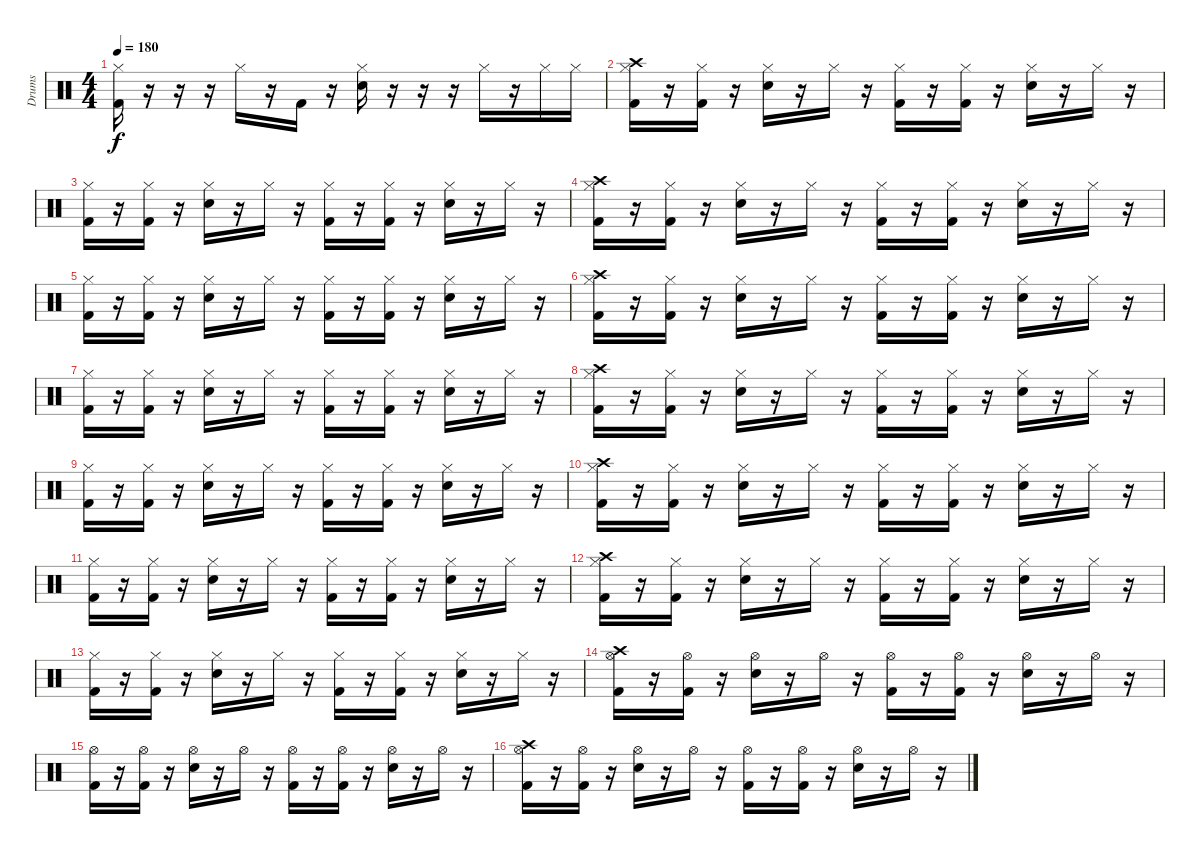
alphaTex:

\track ("Drums" "Drums") {instrument percussion}
\staff {score}
\articulation defaults
\ts (4 4)
\tempo 180
\clef neutral
\ks c
("Hi-Hat (closed)" "Kick (hit) 2").16{dy f} r.16 r.16 r.16 "Hi-Hat (closed)".16 r.16 "Kick (hit) 2".16 r.16 ("Hi-Hat (closed)" "Snare (hit) 2").16 r.16 r.16 r.16 "Hi-Hat (closed)".16 r.16 "Hi-Hat (closed)".16 "Hi-Hat (closed)".16 |
("Hi-Hat (closed)" "Kick (hit) 2" "Crash high (hit)").16 r.16 ("Hi-Hat (closed)" "Kick (hit) 2").16 r.16 ("Hi-Hat (closed)" "Snare (hit) 2").16 r.16 "Hi-Hat (closed)".16 r.16 ("Hi-Hat (closed)" "Kick (hit) 2").16 r.16 ("Hi-Hat (closed)" "Kick (hit) 2").16 r.16 ("Hi-Hat (closed)" "Snare (hit) 2").16 r.16 "Hi-Hat (closed)".16 r.16 |
("Hi-Hat (closed)" "Kick (hit) 2").16 r.16 ("Hi-Hat (closed)" "Kick (hit) 2").16 r.16 ("Hi-Hat (closed)" "Snare (hit) 2").16 r.16 "Hi-Hat (closed)".16 r.16 ("Hi-Hat (closed)" "Kick (hit) 2").16 r.16 ("Hi-Hat (closed)" "Kick (hit) 2").16 r.16 ("Hi-Hat (closed)" "Snare (hit) 2").16 r.16 "Hi-Hat (closed)".16 r.16 |
("Hi-Hat (closed)" "Kick (hit) 2" "Crash high (hit)").16 r.16 ("Hi-Hat (closed)" "Kick (hit) 2").16 r.16 ("Hi-Hat (closed)" "Snare (hit) 2").16 r.16 "Hi-Hat (closed)".16 r.16 ("Hi-Hat (closed)" "Kick (hit) 2").16 r.16 ("Hi-Hat (closed)" "Kick (hit) 2").16 r.16 ("Hi-Hat (closed)" "Snare (hit) 2").16 r.16 "Hi-Hat (closed)".16 r.16 |
("Hi-Hat (closed)" "Kick (hit) 2").16 r.16 ("Hi-Hat (closed)" "Kick (hit) 2").16 r.16 ("Hi-Hat (closed)" "Snare (hit) 2").16 r.16 "Hi-Hat (closed)".16 r.16 ("Hi-Hat (closed)" "Kick (hit) 2").16 r.16 ("Hi-Hat (closed)" "Kick (hit) 2").16 r.16 ("Hi-Hat (closed)" "Snare (hit) 2").16 r.16 "Hi-Hat (closed)".16 r.16 |
("Hi-Hat (closed)" "Kick (hit) 2" "Crash high (hit)").16 r.16 ("Hi-Hat (closed)" "Kick (hit) 2").16 r.16 ("Hi-Hat (closed)" "Snare (hit) 2").16 r.16 "Hi-Hat (closed)".16 r.16 ("Hi-Hat (closed)" "Kick (hit) 2").16 r.16 ("Hi-Hat (closed)" "Kick (hit) 2").16 r.16 ("Hi-Hat (closed)" "Snare (hit) 2").16 r.16 "Hi-Hat (closed)".16 r.16 |
("Hi-Hat (closed)" "Kick (hit) 2").16 r.16 ("Hi-Hat (closed)" "Kick (hit) 2").16 r.16 ("Hi-Hat (closed)" "Snare (hit) 2").16 r.16 "Hi-Hat (closed)".16 r.16 ("Hi-Hat (closed)" "Kick (hit) 2").16 r.16 ("Hi-Hat (closed)" "Kick (hit) 2").16 r.16 ("Hi-Hat (closed)" "Snare (hit) 2").16 r.16 "Hi-Hat (closed)".16 r.16 |
("Hi-Hat (closed)" "Kick (hit) 2" "Crash high (hit)").16 r.16 ("Hi-Hat (closed)" "Kick (hit) 2").16 r.16 ("Hi-Hat (closed)" "Snare (hit) 2").16 r.16 "Hi-Hat (closed)".16 r.16 ("Hi-Hat (closed)" "Kick (hit) 2").16 r.16 ("Hi-Hat (closed)" "Kick (hit) 2").16 r.16 ("Hi-Hat (closed)" "Snare (hit) 2").16 r.16 "Hi-Hat (closed)".16 r.16 |
("Hi-Hat (closed)" "Kick (hit) 2").16 r.16 ("Hi-Hat (closed)" "Kick (hit) 2").16 r.16 ("Hi-Hat (closed)" "Snare (hit) 2").16 r.16 "Hi-Hat (closed)".16 r.16 ("Hi-Hat (closed)" "Kick (hit) 2").16 r.16 ("Hi-Hat (closed)" "Kick (hit) 2").16 r.16 ("Hi-Hat (closed)" "Snare (hit) 2").16 r.16 "Hi-Hat (closed)".16 r.16 |
("Hi-Hat (closed)" "Kick (hit) 2" "Crash high (hit)").16 r.16 ("Hi-Hat (closed)" "Kick (hit) 2").16 r.16 ("Hi-Hat (closed)" "Snare (hit) 2").16 r.16 "Hi-Hat (closed)".16 r.16 ("Hi-Hat (closed)" "Kick (hit) 2").16 r.16 ("Hi-Hat (closed)" "Kick (hit) 2").16 r.16 ("Hi-Hat (closed)" "Snare (hit) 2").16 r.16 "Hi-Hat (closed)".16 r.16 |
("Hi-Hat (closed)" "Kick (hit) 2").16 r.16 ("Hi-Hat (closed)" "Kick (hit) 2").16 r.16 ("Hi-Hat (closed)" "Snare (hit) 2").16 r.16 "Hi-Hat (closed)".16 r.16 ("Hi-Hat (closed)" "Kick (hit) 2").16 r.16 ("Hi-Hat (closed)" "Kick (hit) 2").16 r.16 ("Hi-Hat (closed)" "Snare (hit) 2").16 r.16 "Hi-Hat (closed)".16 r.16 |
("Hi-Hat (closed)" "Kick (hit) 2" "Crash high (hit)").16 r.16 ("Hi-Hat (closed)" "Kick (hit) 2").16 r.16 ("Hi-Hat (closed)" "Snare (hit) 2").16 r.16 "Hi-Hat (closed)".16 r.16 ("Hi-Hat (closed)" "Kick (hit) 2").16 r.16 ("Hi-Hat (closed)" "Kick (hit) 2").16 r.16 ("Hi-Hat (closed)" "Snare (hit) 2").16 r.16 "Hi-Hat (closed)".16 r.16 |
("Hi-Hat (closed)" "Kick (hit) 2").16 r.16 ("Hi-Hat (closed)" "Kick (hit) 2").16 r.16 ("Hi-Hat (closed)" "Snare (hit) 2").16 r.16 "Hi-Hat (closed)".16 r.16 ("Hi-Hat (closed)" "Kick (hit) 2").16 r.16 ("Hi-Hat (closed)" "Kick (hit) 2").16 r.16 ("Hi-Hat (closed)" "Snare (hit) 2").16 r.16 "Hi-Hat (closed)".16 r.16 |
("Hi-Hat (open)" "Kick (hit) 2" "Crash high (hit)").16 r.16 ("Hi-Hat (open)" "Kick (hit) 2").16 r.16 ("Hi-Hat (open)" "Snare (hit) 2").16 r.16 "Hi-Hat (open)".16 r.16 ("Hi-Hat (open)" "Kick (hit) 2").16 r.16 ("Hi-Hat (open)" "Kick (hit) 2").16 r.16 ("Hi-Hat (open)" "Snare (hit) 2").16 r.16 "Hi-Hat (open)".16 r.16 |
("Hi-Hat (open)" "Kick (hit) 2").16 r.16 ("Hi-Hat (open)" "Kick (hit) 2").16 r.16 ("Hi-Hat (open)" "Snare (hit) 2").16 r.16 "Hi-Hat (open)".16 r.16 ("Hi-Hat (open)" "Kick (hit) 2").16 r.16 ("Hi-Hat (open)" "Kick (hit) 2").16 r.16 ("Hi-Hat (open)" "Snare (hit) 2").16 r.16 "Hi-Hat (open)".16 r.16 |
("Hi-Hat (open)" "Kick (hit) 2" "Crash high (hit)").16 r.16 ("Hi-Hat (open)" "Kick (hit) 2").16 r.16 ("Hi-Hat (open)" "Snare (hit) 2").16 r.16 "Hi-Hat (open)".16 r.16 ("Hi-Hat (open)" "Kick (hit) 2").16 r.16 ("Hi-Hat (open)" "Kick (hit) 2").16 r.16 ("Hi-Hat (open)" "Snare (hit) 2").16 r.16 "Hi-Hat (open)".16 r.16
